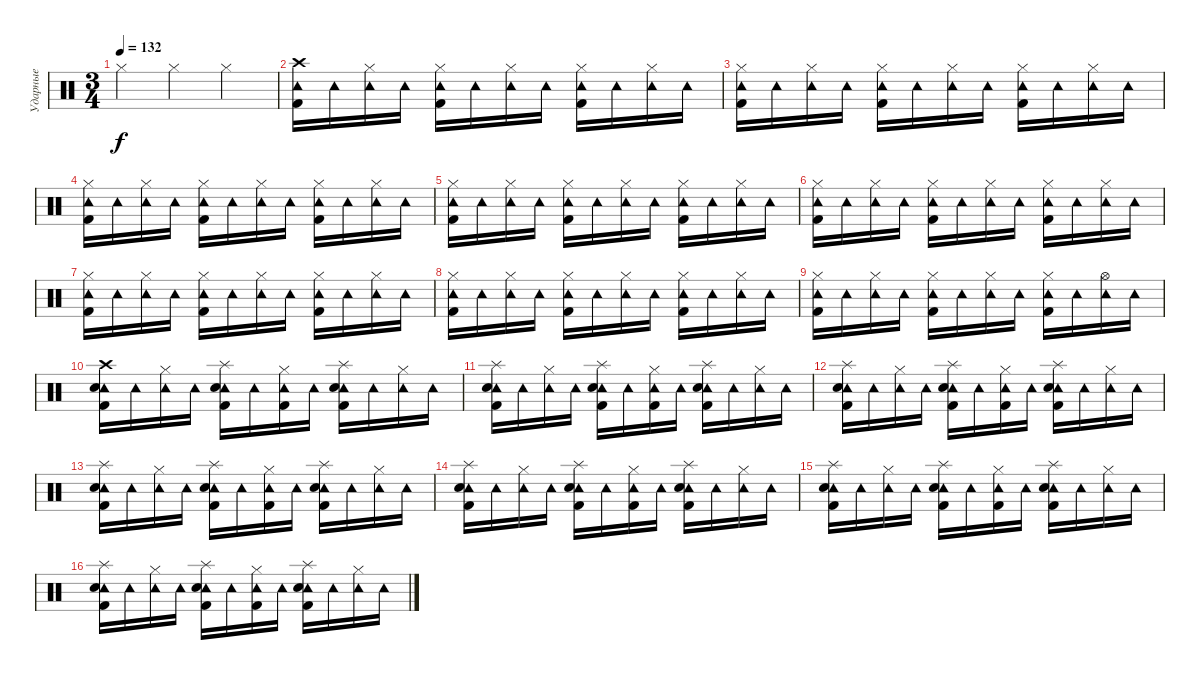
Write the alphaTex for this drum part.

\track ("Ударные" "Ударные") {instrument percussion}
\staff {score}
\articulation defaults
\ts (3 4)
\tempo 132
\clef neutral
\ks c "Hi-Hat (closed)".4{dy f} "Hi-Hat (closed)".4 "Hi-Hat (closed)".4
|
("Crash high (hit)" "Tambourine (hit)" "Kick (hit) 2").16 "Tambourine (hit)".16 ("Hi-Hat (closed)" "Tambourine (hit)").16 "Tambourine (hit)".16 ("Hi-Hat (closed)" "Tambourine (hit)" "Kick (hit) 2").16 "Tambourine (hit)".16 ("Hi-Hat (closed)" "Tambourine (hit)").16 "Tambourine (hit)".16 ("Hi-Hat (closed)" "Tambourine (hit)" "Kick (hit) 2").16 "Tambourine (hit)".16 ("Hi-Hat (closed)" "Tambourine (hit)").16 "Tambourine (hit)".16 |
("Hi-Hat (closed)" "Tambourine (hit)" "Kick (hit) 2").16 "Tambourine (hit)".16 ("Hi-Hat (closed)" "Tambourine (hit)").16 "Tambourine (hit)".16 ("Hi-Hat (closed)" "Tambourine (hit)" "Kick (hit) 2").16 "Tambourine (hit)".16 ("Hi-Hat (closed)" "Tambourine (hit)").16 "Tambourine (hit)".16 ("Hi-Hat (closed)" "Tambourine (hit)" "Kick (hit) 2").16 "Tambourine (hit)".16 ("Hi-Hat (closed)" "Tambourine (hit)").16 "Tambourine (hit)".16 |
("Hi-Hat (closed)" "Tambourine (hit)" "Kick (hit) 2").16 "Tambourine (hit)".16 ("Hi-Hat (closed)" "Tambourine (hit)").16 "Tambourine (hit)".16 ("Hi-Hat (closed)" "Tambourine (hit)" "Kick (hit) 2").16 "Tambourine (hit)".16 ("Hi-Hat (closed)" "Tambourine (hit)").16 "Tambourine (hit)".16 ("Hi-Hat (closed)" "Tambourine (hit)" "Kick (hit) 2").16 "Tambourine (hit)".16 ("Hi-Hat (closed)" "Tambourine (hit)").16 "Tambourine (hit)".16 |
("Hi-Hat (closed)" "Tambourine (hit)" "Kick (hit) 2").16 "Tambourine (hit)".16 ("Hi-Hat (closed)" "Tambourine (hit)").16 "Tambourine (hit)".16 ("Hi-Hat (closed)" "Tambourine (hit)" "Kick (hit) 2").16 "Tambourine (hit)".16 ("Hi-Hat (closed)" "Tambourine (hit)").16 "Tambourine (hit)".16 ("Hi-Hat (closed)" "Tambourine (hit)" "Kick (hit) 2").16 "Tambourine (hit)".16 ("Hi-Hat (closed)" "Tambourine (hit)").16 "Tambourine (hit)".16 |
("Hi-Hat (closed)" "Tambourine (hit)" "Kick (hit) 2").16 "Tambourine (hit)".16 ("Hi-Hat (closed)" "Tambourine (hit)").16 "Tambourine (hit)".16 ("Hi-Hat (closed)" "Tambourine (hit)" "Kick (hit) 2").16 "Tambourine (hit)".16 ("Hi-Hat (closed)" "Tambourine (hit)").16 "Tambourine (hit)".16 ("Hi-Hat (closed)" "Tambourine (hit)" "Kick (hit) 2").16 "Tambourine (hit)".16 ("Hi-Hat (closed)" "Tambourine (hit)").16 "Tambourine (hit)".16 |
("Hi-Hat (closed)" "Tambourine (hit)" "Kick (hit) 2").16 "Tambourine (hit)".16 ("Hi-Hat (closed)" "Tambourine (hit)").16 "Tambourine (hit)".16 ("Hi-Hat (closed)" "Tambourine (hit)" "Kick (hit) 2").16 "Tambourine (hit)".16 ("Hi-Hat (closed)" "Tambourine (hit)").16 "Tambourine (hit)".16 ("Hi-Hat (closed)" "Tambourine (hit)" "Kick (hit) 2").16 "Tambourine (hit)".16 ("Hi-Hat (closed)" "Tambourine (hit)").16 "Tambourine (hit)".16 |
("Hi-Hat (closed)" "Tambourine (hit)" "Kick (hit) 2").16 "Tambourine (hit)".16 ("Hi-Hat (closed)" "Tambourine (hit)").16 "Tambourine (hit)".16 ("Hi-Hat (closed)" "Tambourine (hit)" "Kick (hit) 2").16 "Tambourine (hit)".16 ("Hi-Hat (closed)" "Tambourine (hit)").16 "Tambourine (hit)".16 ("Hi-Hat (closed)" "Tambourine (hit)" "Kick (hit) 2").16 "Tambourine (hit)".16 ("Hi-Hat (closed)" "Tambourine (hit)").16 "Tambourine (hit)".16 |
("Hi-Hat (closed)" "Tambourine (hit)" "Kick (hit) 2").16 "Tambourine (hit)".16 ("Hi-Hat (closed)" "Tambourine (hit)").16 "Tambourine (hit)".16 ("Hi-Hat (closed)" "Tambourine (hit)" "Kick (hit) 2").16 "Tambourine (hit)".16 ("Hi-Hat (closed)" "Tambourine (hit)").16 "Tambourine (hit)".16 ("Hi-Hat (closed)" "Tambourine (hit)" "Kick (hit) 2").16 "Tambourine (hit)".16 ("Hi-Hat (open)" "Tambourine (hit)").16 "Tambourine (hit)".16 |
("Crash high (hit)" "Tambourine (hit)" "Kick (hit) 2" "Electric Snare (hit)").16 "Tambourine (hit)".16 ("Hi-Hat (closed)" "Tambourine (hit)").16 "Tambourine (hit)".16 ("Splash (hit)" "Tambourine (hit)" "Kick (hit) 2" "Electric Snare (hit)").16 "Tambourine (hit)".16 ("Hi-Hat (closed)" "Tambourine (hit)" "Kick (hit) 2").16 "Tambourine (hit)".16 ("Splash (hit)" "Tambourine (hit)" "Kick (hit) 2" "Electric Snare (hit)").16 "Tambourine (hit)".16 ("Hi-Hat (closed)" "Tambourine (hit)").16 "Tambourine (hit)".16 |
("Splash (hit)" "Tambourine (hit)" "Kick (hit) 2" "Electric Snare (hit)").16 "Tambourine (hit)".16 ("Hi-Hat (closed)" "Tambourine (hit)").16 "Tambourine (hit)".16 ("Splash (hit)" "Tambourine (hit)" "Kick (hit) 2" "Electric Snare (hit)").16 "Tambourine (hit)".16 ("Hi-Hat (closed)" "Tambourine (hit)" "Kick (hit) 2").16 "Tambourine (hit)".16 ("Splash (hit)" "Tambourine (hit)" "Kick (hit) 2" "Electric Snare (hit)").16 "Tambourine (hit)".16 ("Hi-Hat (closed)" "Tambourine (hit)").16 "Tambourine (hit)".16 |
("Splash (hit)" "Tambourine (hit)" "Kick (hit) 2" "Electric Snare (hit)").16 "Tambourine (hit)".16 ("Hi-Hat (closed)" "Tambourine (hit)").16 "Tambourine (hit)".16 ("Splash (hit)" "Tambourine (hit)" "Kick (hit) 2" "Electric Snare (hit)").16 "Tambourine (hit)".16 ("Hi-Hat (closed)" "Tambourine (hit)" "Kick (hit) 2").16 "Tambourine (hit)".16 ("Splash (hit)" "Tambourine (hit)" "Kick (hit) 2" "Electric Snare (hit)").16 "Tambourine (hit)".16 ("Hi-Hat (closed)" "Tambourine (hit)").16 "Tambourine (hit)".16 |
("Splash (hit)" "Tambourine (hit)" "Kick (hit) 2" "Electric Snare (hit)").16 "Tambourine (hit)".16 ("Hi-Hat (closed)" "Tambourine (hit)").16 "Tambourine (hit)".16 ("Splash (hit)" "Tambourine (hit)" "Kick (hit) 2" "Electric Snare (hit)").16 "Tambourine (hit)".16 ("Hi-Hat (closed)" "Tambourine (hit)" "Kick (hit) 2").16 "Tambourine (hit)".16 ("Splash (hit)" "Tambourine (hit)" "Kick (hit) 2" "Electric Snare (hit)").16 "Tambourine (hit)".16 ("Hi-Hat (closed)" "Tambourine (hit)").16 "Tambourine (hit)".16 |
("Splash (hit)" "Tambourine (hit)" "Kick (hit) 2" "Electric Snare (hit)").16 "Tambourine (hit)".16 ("Hi-Hat (closed)" "Tambourine (hit)").16 "Tambourine (hit)".16 ("Splash (hit)" "Tambourine (hit)" "Kick (hit) 2" "Electric Snare (hit)").16 "Tambourine (hit)".16 ("Hi-Hat (closed)" "Tambourine (hit)" "Kick (hit) 2").16 "Tambourine (hit)".16 ("Splash (hit)" "Tambourine (hit)" "Kick (hit) 2" "Electric Snare (hit)").16 "Tambourine (hit)".16 ("Hi-Hat (closed)" "Tambourine (hit)").16 "Tambourine (hit)".16 |
("Splash (hit)" "Tambourine (hit)" "Kick (hit) 2" "Electric Snare (hit)").16 "Tambourine (hit)".16 ("Hi-Hat (closed)" "Tambourine (hit)").16 "Tambourine (hit)".16 ("Splash (hit)" "Tambourine (hit)" "Kick (hit) 2" "Electric Snare (hit)").16 "Tambourine (hit)".16 ("Hi-Hat (closed)" "Tambourine (hit)" "Kick (hit) 2").16 "Tambourine (hit)".16 ("Splash (hit)" "Tambourine (hit)" "Kick (hit) 2" "Electric Snare (hit)").16 "Tambourine (hit)".16 ("Hi-Hat (closed)" "Tambourine (hit)").16 "Tambourine (hit)".16 |
("Splash (hit)" "Tambourine (hit)" "Kick (hit) 2" "Electric Snare (hit)").16 "Tambourine (hit)".16 ("Hi-Hat (closed)" "Tambourine (hit)").16 "Tambourine (hit)".16 ("Splash (hit)" "Tambourine (hit)" "Kick (hit) 2" "Electric Snare (hit)").16 "Tambourine (hit)".16 ("Hi-Hat (closed)" "Tambourine (hit)" "Kick (hit) 2").16 "Tambourine (hit)".16 ("Splash (hit)" "Tambourine (hit)" "Kick (hit) 2" "Electric Snare (hit)").16 "Tambourine (hit)".16 ("Hi-Hat (closed)" "Tambourine (hit)").16 "Tambourine (hit)".16
